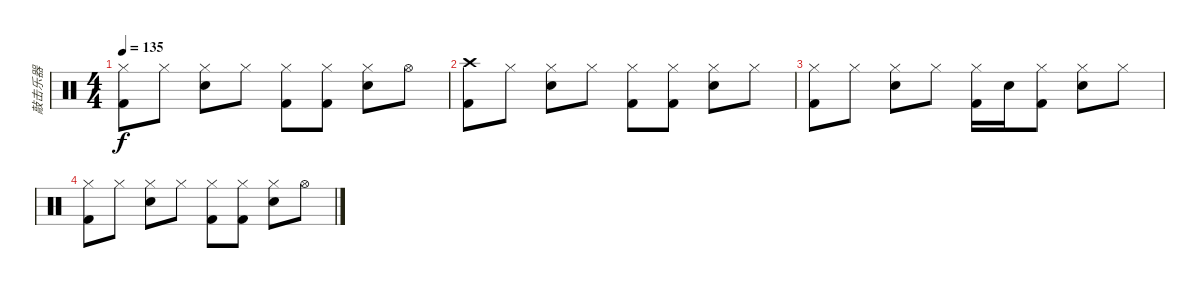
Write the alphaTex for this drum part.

\track ("敲击乐器" "敲击乐器") {instrument percussion}
\staff {score}
\articulation defaults
\ts (4 4)
\tempo 135
\clef neutral
\ks c
("Hi-Hat (closed)" "Kick (hit) 2").8{dy f} "Hi-Hat (closed)".8 ("Hi-Hat (closed)" "Electric Snare (hit)").8 "Hi-Hat (closed)".8 ("Hi-Hat (closed)" "Kick (hit) 2").8 ("Hi-Hat (closed)" "Kick (hit) 2").8 ("Hi-Hat (closed)" "Electric Snare (hit)").8 "Hi-Hat (open)".8 |
("Crash high (hit)" "Kick (hit) 2").8 "Hi-Hat (closed)".8 ("Hi-Hat (closed)" "Electric Snare (hit)").8 "Hi-Hat (closed)".8 ("Hi-Hat (closed)" "Kick (hit) 2").8 ("Hi-Hat (closed)" "Kick (hit) 2").8 ("Hi-Hat (closed)" "Electric Snare (hit)").8 "Hi-Hat (closed)".8 |
("Hi-Hat (closed)" "Kick (hit) 2").8 "Hi-Hat (closed)".8 ("Hi-Hat (closed)" "Electric Snare (hit)").8 "Hi-Hat (closed)".8 ("Hi-Hat (closed)" "Kick (hit) 2").16 "Electric Snare (hit)".16 ("Hi-Hat (closed)" "Kick (hit) 2").8 ("Hi-Hat (closed)" "Electric Snare (hit)").8 "Hi-Hat (closed)".8 |
("Hi-Hat (closed)" "Kick (hit) 2").8 "Hi-Hat (closed)".8 ("Hi-Hat (closed)" "Electric Snare (hit)").8 "Hi-Hat (closed)".8 ("Hi-Hat (closed)" "Kick (hit) 2").8 ("Hi-Hat (closed)" "Kick (hit) 2").8 ("Hi-Hat (closed)" "Electric Snare (hit)").8 "Hi-Hat (open)".8
